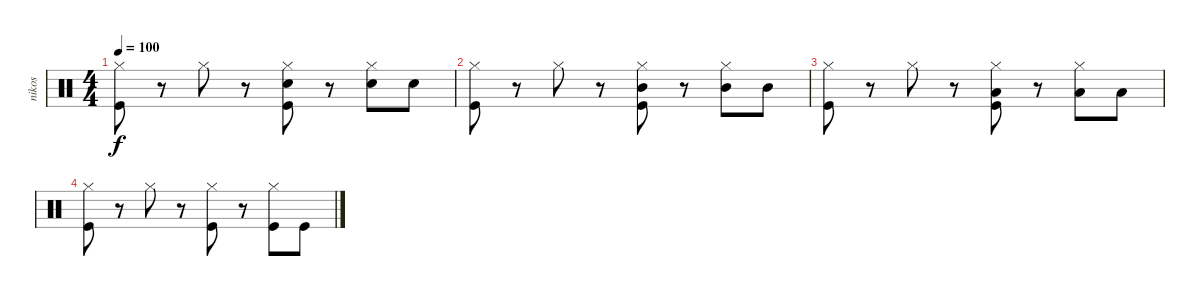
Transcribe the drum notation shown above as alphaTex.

\track ("nikos" "nikos") {instrument percussion}
\staff {score}
\articulation defaults
\ts (4 4)
\tempo 100
\clef neutral
\ks c
("Hi-Hat (closed)" "Kick (hit)").8{dy f} r.8 "Hi-Hat (closed)".8 r.8 ("Hi-Hat (closed)" "Electric Snare (hit)" "Kick (hit)").8 r.8 ("Hi-Hat (closed)" "Electric Snare (hit)").8 "Electric Snare (hit)".8 |
("Hi-Hat (closed)" "Kick (hit)").8 r.8 "Hi-Hat (closed)".8 r.8 ("Mid Tom (hit)" "Hi-Hat (closed)" "Kick (hit)").8 r.8 ("Mid Tom (hit)" "Hi-Hat (closed)").8 "Mid Tom (hit)".8 |
("Hi-Hat (closed)" "Kick (hit)").8 r.8 "Hi-Hat (closed)".8 r.8 ("Low Tom (hit)" "Hi-Hat (closed)" "Kick (hit)").8 r.8 ("Low Tom (hit)" "Hi-Hat (closed)").8 "Low Tom (hit)".8 |
("Hi-Hat (closed)" "Kick (hit)").8 r.8 "Hi-Hat (closed)".8 r.8 ("Hi-Hat (closed)" "Kick (hit)").8 r.8 ("Hi-Hat (closed)" "Kick (hit)").8 "Kick (hit)".8
